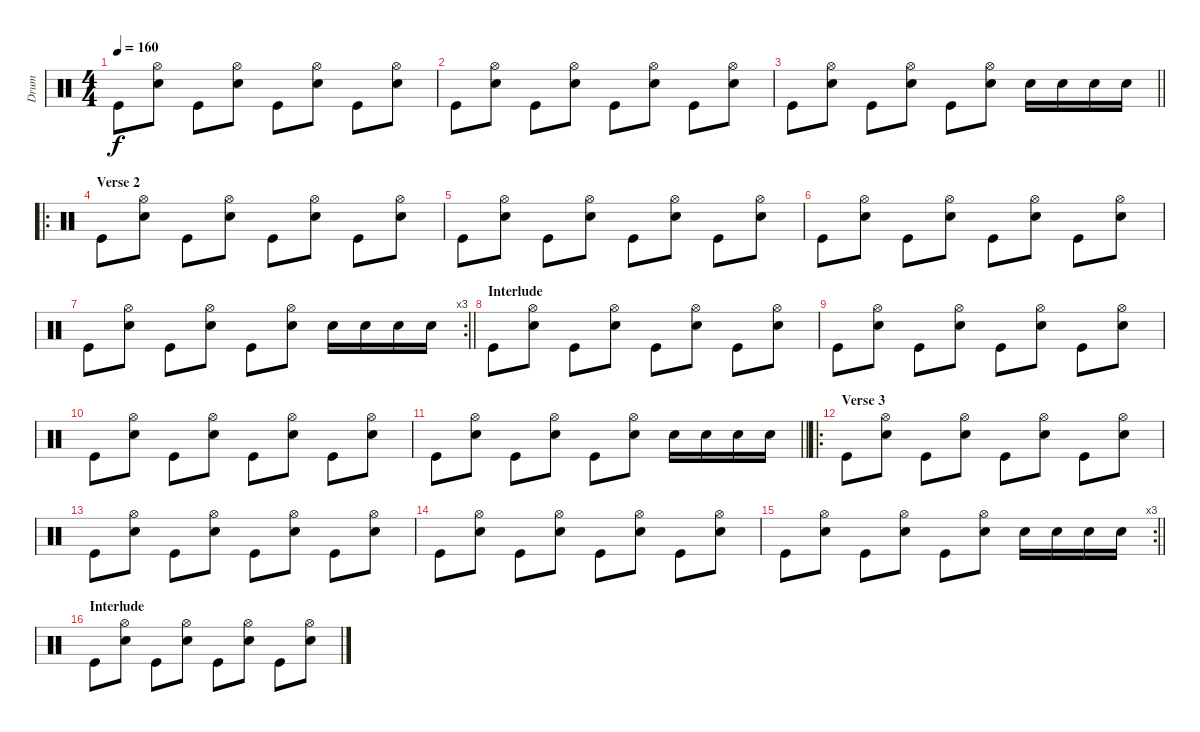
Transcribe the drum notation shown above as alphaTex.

\track ("Drum" "Drum") {instrument percussion}
\staff {score}
\articulation defaults
\ts (4 4)
\tempo 160
\clef neutral
\ks c "Kick (hit)".8{dy f}
("Hi-Hat (open)" "Electric Snare (hit)").8 "Kick (hit)".8 ("Hi-Hat (open)" "Electric Snare (hit)").8 "Kick (hit)".8 ("Hi-Hat (open)" "Electric Snare (hit)").8 "Kick (hit)".8 ("Hi-Hat (open)" "Electric Snare (hit)").8 |
"Kick (hit)".8 ("Hi-Hat (open)" "Electric Snare (hit)").8 "Kick (hit)".8 ("Hi-Hat (open)" "Electric Snare (hit)").8 "Kick (hit)".8 ("Hi-Hat (open)" "Electric Snare (hit)").8 "Kick (hit)".8 ("Hi-Hat (open)" "Electric Snare (hit)").8 |
\barLineRight lightlight "Kick (hit)".8
("Hi-Hat (open)" "Electric Snare (hit)").8 "Kick (hit)".8 ("Hi-Hat (open)" "Electric Snare (hit)").8 "Kick (hit)".8 ("Hi-Hat (open)" "Electric Snare (hit)").8 "Electric Snare (hit)".16 "Electric Snare (hit)".16 "Electric Snare (hit)".16 "Electric Snare (hit)".16 |
\ro
\section ("" "Verse 2")
"Kick (hit)".8 ("Hi-Hat (open)" "Electric Snare (hit)").8 "Kick (hit)".8 ("Hi-Hat (open)" "Electric Snare (hit)").8 "Kick (hit)".8 ("Hi-Hat (open)" "Electric Snare (hit)").8 "Kick (hit)".8 ("Hi-Hat (open)" "Electric Snare (hit)").8 |
"Kick (hit)".8 ("Hi-Hat (open)" "Electric Snare (hit)").8 "Kick (hit)".8 ("Hi-Hat (open)" "Electric Snare (hit)").8 "Kick (hit)".8 ("Hi-Hat (open)" "Electric Snare (hit)").8 "Kick (hit)".8 ("Hi-Hat (open)" "Electric Snare (hit)").8 |
"Kick (hit)".8 ("Hi-Hat (open)" "Electric Snare (hit)").8 "Kick (hit)".8 ("Hi-Hat (open)" "Electric Snare (hit)").8 "Kick (hit)".8 ("Hi-Hat (open)" "Electric Snare (hit)").8 "Kick (hit)".8 ("Hi-Hat (open)" "Electric Snare (hit)").8 |
\rc 3
\barLineRight lightlight "Kick (hit)".8
("Hi-Hat (open)" "Electric Snare (hit)").8 "Kick (hit)".8 ("Hi-Hat (open)" "Electric Snare (hit)").8 "Kick (hit)".8 ("Hi-Hat (open)" "Electric Snare (hit)").8 "Electric Snare (hit)".16 "Electric Snare (hit)".16 "Electric Snare (hit)".16 "Electric Snare (hit)".16 |
\section ("" "Interlude")
"Kick (hit)".8 ("Hi-Hat (open)" "Electric Snare (hit)").8 "Kick (hit)".8 ("Hi-Hat (open)" "Electric Snare (hit)").8 "Kick (hit)".8 ("Hi-Hat (open)" "Electric Snare (hit)").8 "Kick (hit)".8 ("Hi-Hat (open)" "Electric Snare (hit)").8 |
"Kick (hit)".8 ("Hi-Hat (open)" "Electric Snare (hit)").8 "Kick (hit)".8 ("Hi-Hat (open)" "Electric Snare (hit)").8 "Kick (hit)".8 ("Hi-Hat (open)" "Electric Snare (hit)").8 "Kick (hit)".8 ("Hi-Hat (open)" "Electric Snare (hit)").8 |
"Kick (hit)".8 ("Hi-Hat (open)" "Electric Snare (hit)").8 "Kick (hit)".8 ("Hi-Hat (open)" "Electric Snare (hit)").8 "Kick (hit)".8 ("Hi-Hat (open)" "Electric Snare (hit)").8 "Kick (hit)".8 ("Hi-Hat (open)" "Electric Snare (hit)").8 |
\barLineRight lightlight "Kick (hit)".8
("Hi-Hat (open)" "Electric Snare (hit)").8 "Kick (hit)".8 ("Hi-Hat (open)" "Electric Snare (hit)").8 "Kick (hit)".8 ("Hi-Hat (open)" "Electric Snare (hit)").8 "Electric Snare (hit)".16 "Electric Snare (hit)".16 "Electric Snare (hit)".16 "Electric Snare (hit)".16 |
\ro
\section ("" "Verse 3")
"Kick (hit)".8 ("Hi-Hat (open)" "Electric Snare (hit)").8 "Kick (hit)".8 ("Hi-Hat (open)" "Electric Snare (hit)").8 "Kick (hit)".8 ("Hi-Hat (open)" "Electric Snare (hit)").8 "Kick (hit)".8 ("Hi-Hat (open)" "Electric Snare (hit)").8 |
"Kick (hit)".8 ("Hi-Hat (open)" "Electric Snare (hit)").8 "Kick (hit)".8 ("Hi-Hat (open)" "Electric Snare (hit)").8 "Kick (hit)".8 ("Hi-Hat (open)" "Electric Snare (hit)").8 "Kick (hit)".8 ("Hi-Hat (open)" "Electric Snare (hit)").8 |
"Kick (hit)".8 ("Hi-Hat (open)" "Electric Snare (hit)").8 "Kick (hit)".8 ("Hi-Hat (open)" "Electric Snare (hit)").8 "Kick (hit)".8 ("Hi-Hat (open)" "Electric Snare (hit)").8 "Kick (hit)".8 ("Hi-Hat (open)" "Electric Snare (hit)").8 |
\rc 3
\barLineRight lightlight "Kick (hit)".8
("Hi-Hat (open)" "Electric Snare (hit)").8 "Kick (hit)".8 ("Hi-Hat (open)" "Electric Snare (hit)").8 "Kick (hit)".8 ("Hi-Hat (open)" "Electric Snare (hit)").8 "Electric Snare (hit)".16 "Electric Snare (hit)".16 "Electric Snare (hit)".16 "Electric Snare (hit)".16 |
\section ("" "Interlude")
"Kick (hit)".8 ("Hi-Hat (open)" "Electric Snare (hit)").8 "Kick (hit)".8 ("Hi-Hat (open)" "Electric Snare (hit)").8 "Kick (hit)".8 ("Hi-Hat (open)" "Electric Snare (hit)").8 "Kick (hit)".8 ("Hi-Hat (open)" "Electric Snare (hit)").8
